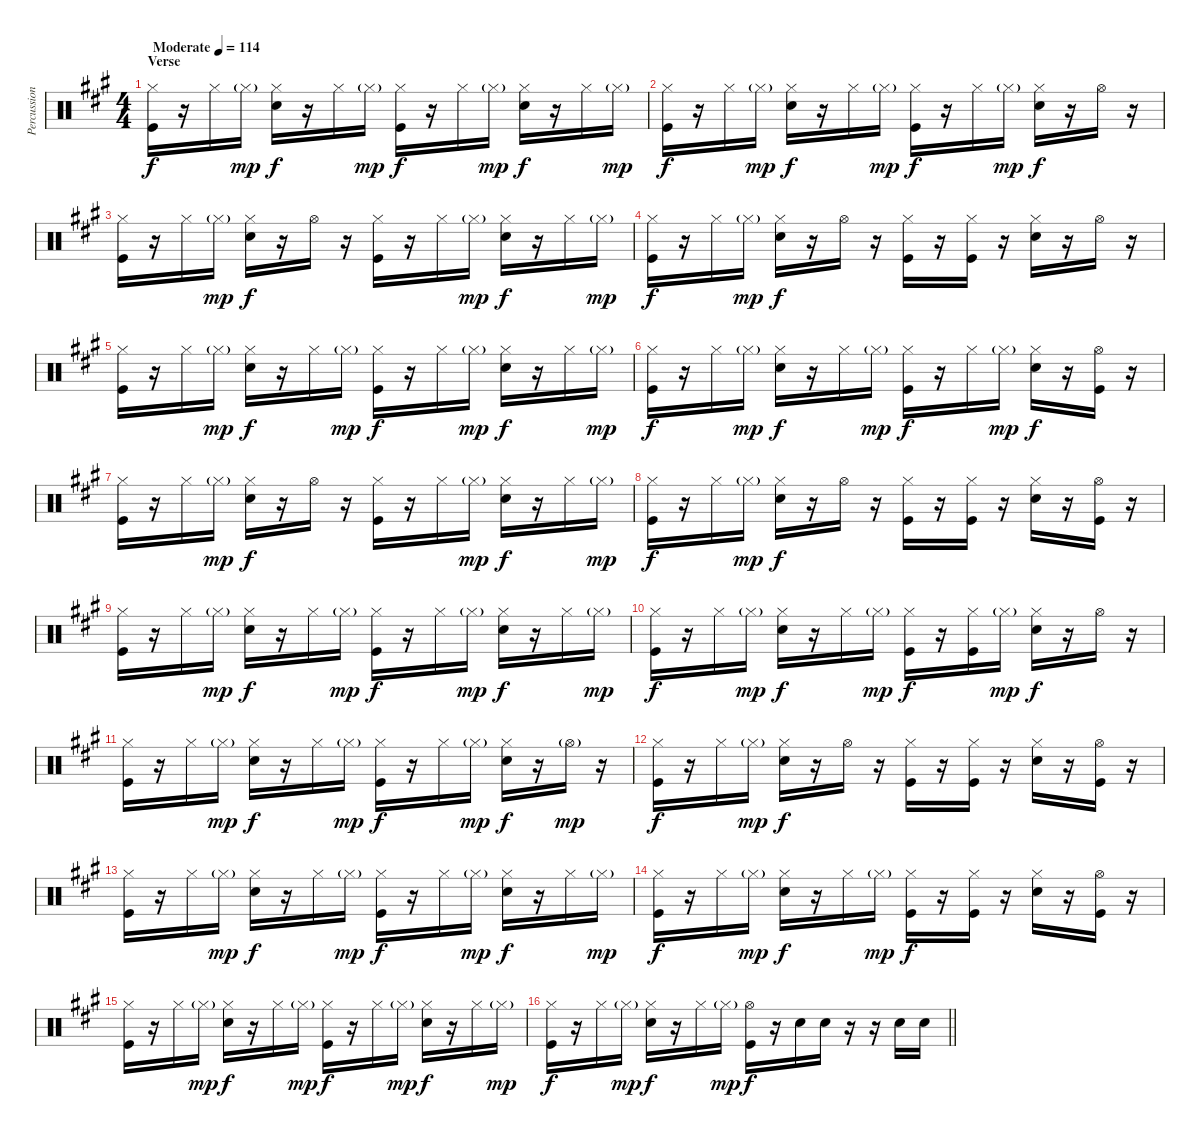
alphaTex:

\track ("Percussion" "Percussion") {instrument percussion}
\staff {score}
\articulation defaults
\ts (4 4)
\section ("" "Verse")
\tempo (114 "Moderate")
\clef neutral
\ks a
("Hi-Hat (closed)" "Kick (hit)").16{dy f} r.16 "Hi-Hat (closed)".16 "Hi-Hat (closed)"{g}.16{dy mp} ("Hi-Hat (closed)" "Snare (hit) 2").16{dy f} r.16 "Hi-Hat (closed)".16 "Hi-Hat (closed)"{g}.16{dy mp} ("Hi-Hat (closed)" "Kick (hit)").16{dy f} r.16 "Hi-Hat (closed)".16 "Hi-Hat (closed)"{g}.16{dy mp} ("Hi-Hat (closed)" "Snare (hit) 2").16{dy f} r.16 "Hi-Hat (closed)".16 "Hi-Hat (closed)"{g}.16{dy mp} |
("Hi-Hat (closed)" "Kick (hit)").16{dy f} r.16 "Hi-Hat (closed)".16 "Hi-Hat (closed)"{g}.16{dy mp} ("Hi-Hat (closed)" "Snare (hit) 2").16{dy f} r.16 "Hi-Hat (closed)".16 "Hi-Hat (closed)"{g}.16{dy mp} ("Hi-Hat (closed)" "Kick (hit)").16{dy f} r.16 "Hi-Hat (closed)".16 "Hi-Hat (closed)"{g}.16{dy mp} ("Hi-Hat (closed)" "Snare (hit) 2").16{dy f} r.16 "Hi-Hat (open)".16 r.16 |
("Hi-Hat (closed)" "Kick (hit)").16 r.16 "Hi-Hat (closed)".16 "Hi-Hat (closed)"{g}.16{dy mp} ("Hi-Hat (closed)" "Snare (hit) 2").16{dy f} r.16 "Hi-Hat (open)".16 r.16 ("Hi-Hat (closed)" "Kick (hit)").16 r.16 "Hi-Hat (closed)".16 "Hi-Hat (closed)"{g}.16{dy mp} ("Hi-Hat (closed)" "Snare (hit) 2").16{dy f} r.16 "Hi-Hat (closed)".16 "Hi-Hat (closed)"{g}.16{dy mp} |
("Hi-Hat (closed)" "Kick (hit)").16{dy f} r.16 "Hi-Hat (closed)".16 "Hi-Hat (closed)"{g}.16{dy mp} ("Hi-Hat (closed)" "Snare (hit) 2").16{dy f} r.16 "Hi-Hat (open)".16 r.16 ("Hi-Hat (closed)" "Kick (hit)").16 r.16 ("Hi-Hat (closed)" "Kick (hit)").16 r.16 ("Hi-Hat (closed)" "Snare (hit) 2").16 r.16 "Hi-Hat (open)".16 r.16 |
("Hi-Hat (closed)" "Kick (hit)").16 r.16 "Hi-Hat (closed)".16 "Hi-Hat (closed)"{g}.16{dy mp} ("Hi-Hat (closed)" "Snare (hit) 2").16{dy f} r.16 "Hi-Hat (closed)".16 "Hi-Hat (closed)"{g}.16{dy mp} ("Hi-Hat (closed)" "Kick (hit)").16{dy f} r.16 "Hi-Hat (closed)".16 "Hi-Hat (closed)"{g}.16{dy mp} ("Hi-Hat (closed)" "Snare (hit) 2").16{dy f} r.16 "Hi-Hat (closed)".16 "Hi-Hat (closed)"{g}.16{dy mp} |
("Hi-Hat (closed)" "Kick (hit)").16{dy f} r.16 "Hi-Hat (closed)".16 "Hi-Hat (closed)"{g}.16{dy mp} ("Hi-Hat (closed)" "Snare (hit) 2").16{dy f} r.16 "Hi-Hat (closed)".16 "Hi-Hat (closed)"{g}.16{dy mp} ("Hi-Hat (closed)" "Kick (hit)").16{dy f} r.16 "Hi-Hat (closed)".16 "Hi-Hat (closed)"{g}.16{dy mp} ("Hi-Hat (closed)" "Snare (hit) 2").16{dy f} r.16 ("Hi-Hat (open)" "Kick (hit)").16 r.16 |
("Hi-Hat (closed)" "Kick (hit)").16 r.16 "Hi-Hat (closed)".16 "Hi-Hat (closed)"{g}.16{dy mp} ("Hi-Hat (closed)" "Snare (hit) 2").16{dy f} r.16 "Hi-Hat (open)".16 r.16 ("Hi-Hat (closed)" "Kick (hit)").16 r.16 "Hi-Hat (closed)".16 "Hi-Hat (closed)"{g}.16{dy mp} ("Hi-Hat (closed)" "Snare (hit) 2").16{dy f} r.16 "Hi-Hat (closed)".16 "Hi-Hat (closed)"{g}.16{dy mp} |
("Hi-Hat (closed)" "Kick (hit)").16{dy f} r.16 "Hi-Hat (closed)".16 "Hi-Hat (closed)"{g}.16{dy mp} ("Hi-Hat (closed)" "Snare (hit) 2").16{dy f} r.16 "Hi-Hat (open)".16 r.16 ("Hi-Hat (closed)" "Kick (hit)").16 r.16 ("Hi-Hat (closed)" "Kick (hit)").16 r.16 ("Hi-Hat (closed)" "Snare (hit) 2").16 r.16 ("Hi-Hat (open)" "Kick (hit)").16 r.16 |
("Hi-Hat (closed)" "Kick (hit)").16 r.16 "Hi-Hat (closed)".16 "Hi-Hat (closed)"{g}.16{dy mp} ("Hi-Hat (closed)" "Snare (hit) 2").16{dy f} r.16 "Hi-Hat (closed)".16 "Hi-Hat (closed)"{g}.16{dy mp} ("Hi-Hat (closed)" "Kick (hit)").16{dy f} r.16 "Hi-Hat (closed)".16 "Hi-Hat (closed)"{g}.16{dy mp} ("Hi-Hat (closed)" "Snare (hit) 2").16{dy f} r.16 "Hi-Hat (closed)".16 "Hi-Hat (closed)"{g}.16{dy mp} |
("Hi-Hat (closed)" "Kick (hit)").16{dy f} r.16 "Hi-Hat (closed)".16 "Hi-Hat (closed)"{g}.16{dy mp} ("Hi-Hat (closed)" "Snare (hit) 2").16{dy f} r.16 "Hi-Hat (closed)".16 "Hi-Hat (closed)"{g}.16{dy mp} ("Hi-Hat (closed)" "Kick (hit)").16{dy f} r.16 ("Hi-Hat (closed)" "Kick (hit)").16 "Hi-Hat (closed)"{g}.16{dy mp} ("Hi-Hat (closed)" "Snare (hit) 2").16{dy f} r.16 "Hi-Hat (open)".16 r.16 |
("Hi-Hat (closed)" "Kick (hit)").16 r.16 "Hi-Hat (closed)".16 "Hi-Hat (closed)"{g}.16{dy mp} ("Hi-Hat (closed)" "Snare (hit) 2").16{dy f} r.16 "Hi-Hat (closed)".16 "Hi-Hat (closed)"{g}.16{dy mp} ("Hi-Hat (closed)" "Kick (hit)").16{dy f} r.16 "Hi-Hat (closed)".16 "Hi-Hat (closed)"{g}.16{dy mp} ("Hi-Hat (closed)" "Snare (hit) 2").16{dy f} r.16 "Hi-Hat (open)"{g}.16{dy mp} r.16 |
("Hi-Hat (closed)" "Kick (hit)").16{dy f} r.16 "Hi-Hat (closed)".16 "Hi-Hat (closed)"{g}.16{dy mp} ("Hi-Hat (closed)" "Snare (hit) 2").16{dy f} r.16 "Hi-Hat (open)".16 r.16 ("Hi-Hat (closed)" "Kick (hit)").16 r.16 ("Hi-Hat (closed)" "Kick (hit)").16 r.16 ("Hi-Hat (closed)" "Snare (hit) 2").16 r.16 ("Hi-Hat (open)" "Kick (hit)").16 r.16 |
("Hi-Hat (closed)" "Kick (hit)").16 r.16 "Hi-Hat (closed)".16 "Hi-Hat (closed)"{g}.16{dy mp} ("Hi-Hat (closed)" "Snare (hit) 2").16{dy f} r.16 "Hi-Hat (closed)".16 "Hi-Hat (closed)"{g}.16{dy mp} ("Hi-Hat (closed)" "Kick (hit)").16{dy f} r.16 "Hi-Hat (closed)".16 "Hi-Hat (closed)"{g}.16{dy mp} ("Hi-Hat (closed)" "Snare (hit) 2").16{dy f} r.16 "Hi-Hat (closed)".16 "Hi-Hat (closed)"{g}.16{dy mp} |
("Hi-Hat (closed)" "Kick (hit)").16{dy f} r.16 "Hi-Hat (closed)".16 "Hi-Hat (closed)"{g}.16{dy mp} ("Hi-Hat (closed)" "Snare (hit) 2").16{dy f} r.16 "Hi-Hat (closed)".16 "Hi-Hat (closed)"{g}.16{dy mp} ("Hi-Hat (closed)" "Kick (hit)").16{dy f} r.16 ("Hi-Hat (closed)" "Kick (hit)").16 r.16 ("Hi-Hat (closed)" "Snare (hit) 2").16 r.16 ("Hi-Hat (open)" "Kick (hit)").16 r.16 |
("Hi-Hat (closed)" "Kick (hit)").16 r.16 "Hi-Hat (closed)".16 "Hi-Hat (closed)"{g}.16{dy mp} ("Hi-Hat (closed)" "Snare (hit) 2").16{dy f} r.16 "Hi-Hat (closed)".16 "Hi-Hat (closed)"{g}.16{dy mp} ("Hi-Hat (closed)" "Kick (hit)").16{dy f} r.16 "Hi-Hat (closed)".16 "Hi-Hat (closed)"{g}.16{dy mp} ("Hi-Hat (closed)" "Snare (hit) 2").16{dy f} r.16 "Hi-Hat (closed)".16 "Hi-Hat (closed)"{g}.16{dy mp} |
\barLineRight lightlight
("Hi-Hat (closed)" "Kick (hit)").16{dy f} r.16 "Hi-Hat (closed)".16 "Hi-Hat (closed)"{g}.16{dy mp} ("Hi-Hat (closed)" "Snare (hit) 2").16{dy f} r.16 "Hi-Hat (closed)".16 "Hi-Hat (closed)"{g}.16{dy mp} ("Hi-Hat (open)" "Kick (hit)").16{dy f} r.16 "Snare (hit) 2".16 "Snare (hit) 2".16 r.16 r.16 "Snare (hit) 2".16 "Snare (hit) 2".16
